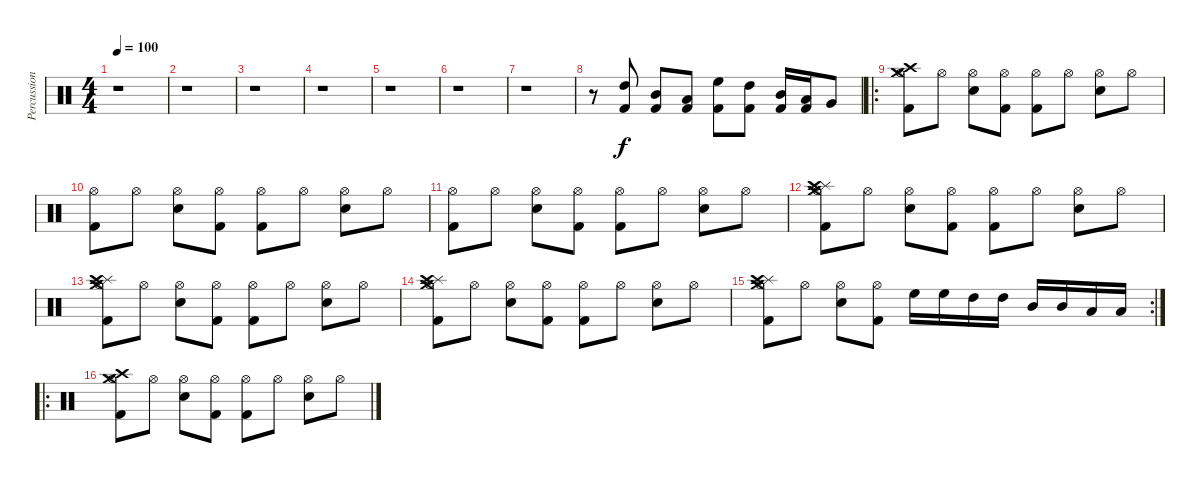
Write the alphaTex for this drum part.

\track ("Percussion" "Percussion") {instrument percussion}
\staff {score}
\articulation defaults
\ts (4 4)
\tempo 100
\clef neutral
\ks c
r.1{dy f} |
r.1 |
r.1 |
r.1 |
r.1 |
r.1 |
r.1 |
r.8 ("High Tom (hit)" "Kick (hit) 2").8 ("Mid Tom (hit)" "Kick (hit) 2").8 ("Low Tom (hit)" "Kick (hit) 2").8 ("High Floor Tom (hit)" "Kick (hit) 2").8 ("High Tom (hit)" "Kick (hit) 2").8 ("Mid Tom (hit)" "Kick (hit) 2").16 ("Low Tom (hit)" "Kick (hit) 2").16 "Very Low Tom (hit)".8 |
\ro
("Crash high (hit)" "Crash medium (hit)" "Kick (hit) 2" "Hi-Hat (open)").8 "Hi-Hat (open)".8 ("Hi-Hat (open)" "Electric Snare (hit)").8 ("Hi-Hat (open)" "Kick (hit) 2").8 ("Hi-Hat (open)" "Kick (hit) 2").8 "Hi-Hat (open)".8 ("Hi-Hat (open)" "Electric Snare (hit)").8 "Hi-Hat (open)".8 |
("Kick (hit) 2" "Hi-Hat (open)").8 "Hi-Hat (open)".8 ("Hi-Hat (open)" "Electric Snare (hit)").8 ("Hi-Hat (open)" "Kick (hit) 2").8 ("Hi-Hat (open)" "Kick (hit) 2").8 "Hi-Hat (open)".8 ("Hi-Hat (open)" "Electric Snare (hit)").8 "Hi-Hat (open)".8 |
("Kick (hit) 2" "Hi-Hat (open)").8 "Hi-Hat (open)".8 ("Hi-Hat (open)" "Electric Snare (hit)").8 ("Hi-Hat (open)" "Kick (hit) 2").8 ("Hi-Hat (open)" "Kick (hit) 2").8 "Hi-Hat (open)".8 ("Hi-Hat (open)" "Electric Snare (hit)").8 "Hi-Hat (open)".8 |
("Splash (hit)" "Crash high (hit)" "Crash medium (hit)" "Hi-Hat (open)" "Kick (hit) 2").8 "Hi-Hat (open)".8 ("Hi-Hat (open)" "Electric Snare (hit)").8 ("Hi-Hat (open)" "Kick (hit) 2").8 ("Hi-Hat (open)" "Kick (hit) 2").8 "Hi-Hat (open)".8 ("Hi-Hat (open)" "Electric Snare (hit)").8 "Hi-Hat (open)".8 |
("Splash (hit)" "Crash high (hit)" "Crash medium (hit)" "Hi-Hat (open)" "Kick (hit) 2").8 "Hi-Hat (open)".8 ("Hi-Hat (open)" "Electric Snare (hit)").8 ("Hi-Hat (open)" "Kick (hit) 2").8 ("Hi-Hat (open)" "Kick (hit) 2").8 "Hi-Hat (open)".8 ("Hi-Hat (open)" "Electric Snare (hit)").8 "Hi-Hat (open)".8 |
("Splash (hit)" "Crash high (hit)" "Crash medium (hit)" "Hi-Hat (open)" "Kick (hit) 2").8 "Hi-Hat (open)".8 ("Hi-Hat (open)" "Electric Snare (hit)").8 ("Hi-Hat (open)" "Kick (hit) 2").8 ("Hi-Hat (open)" "Kick (hit) 2").8 "Hi-Hat (open)".8 ("Hi-Hat (open)" "Electric Snare (hit)").8 "Hi-Hat (open)".8 |
\rc 2
("Splash (hit)" "Crash high (hit)" "Crash medium (hit)" "Hi-Hat (open)" "Kick (hit) 2").8 "Hi-Hat (open)".8 ("Hi-Hat (open)" "Electric Snare (hit)").8 ("Hi-Hat (open)" "Kick (hit) 2").8 "High Floor Tom (hit)".16 "High Floor Tom (hit)".16 "High Tom (hit)".16 "High Tom (hit)".16 "Mid Tom (hit)".16 "Mid Tom (hit)".16 "Low Tom (hit)".16 "Low Tom (hit)".16 |
\ro
("Crash high (hit)" "Crash medium (hit)" "Kick (hit) 2" "Hi-Hat (open)").8 "Hi-Hat (open)".8 ("Hi-Hat (open)" "Electric Snare (hit)").8 ("Hi-Hat (open)" "Kick (hit) 2").8 ("Hi-Hat (open)" "Kick (hit) 2").8 "Hi-Hat (open)".8 ("Hi-Hat (open)" "Electric Snare (hit)").8 "Hi-Hat (open)".8
